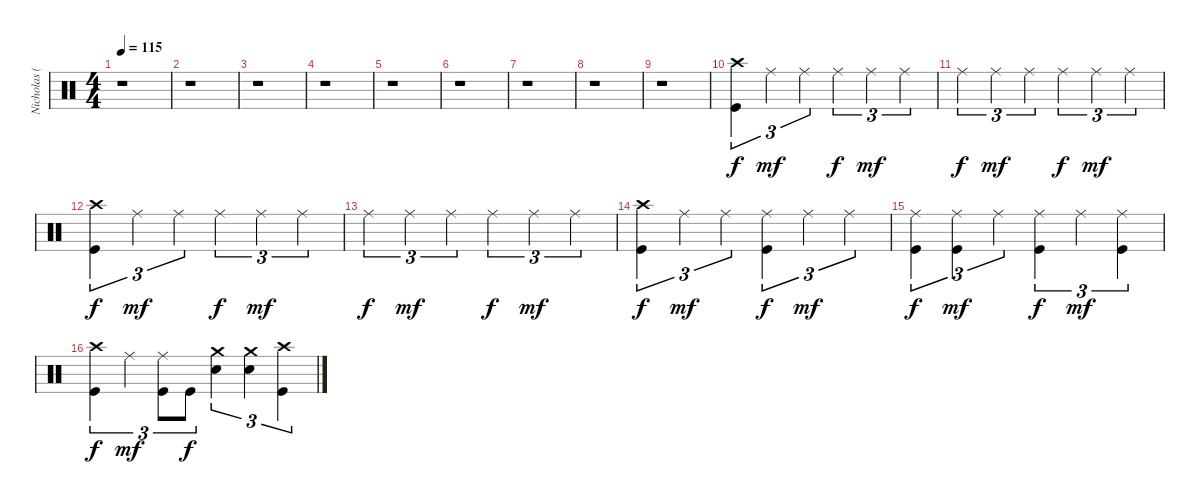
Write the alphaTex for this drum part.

\track ("Nicholas (Drums)" "Nicholas (") {instrument percussion}
\staff {score}
\articulation defaults
\ts (4 4)
\tempo 115
\clef neutral
\ks c
r.1{dy f} |
r.1 |
r.1 |
r.1 |
r.1 |
r.1 |
r.1 |
r.1 |
r.1 |
("Crash high (hit)" "Kick (hit)").4{tu (3 2)} "Ride (middle)".4{tu (3 2) dy mf} "Ride (middle)".4{tu (3 2)} "Ride (middle)".4{tu (3 2) dy f} "Ride (middle)".4{tu (3 2) dy mf} "Ride (middle)".4{tu (3 2)} |
"Ride (middle)".4{tu (3 2) dy f} "Ride (middle)".4{tu (3 2) dy mf} "Ride (middle)".4{tu (3 2)} "Ride (middle)".4{tu (3 2) dy f} "Ride (middle)".4{tu (3 2) dy mf} "Ride (middle)".4{tu (3 2)} |
("Crash high (hit)" "Kick (hit)").4{tu (3 2) dy f} "Ride (middle)".4{tu (3 2) dy mf} "Ride (middle)".4{tu (3 2)} "Ride (middle)".4{tu (3 2) dy f} "Ride (middle)".4{tu (3 2) dy mf} "Ride (middle)".4{tu (3 2)} |
"Ride (middle)".4{tu (3 2) dy f} "Ride (middle)".4{tu (3 2) dy mf} "Ride (middle)".4{tu (3 2)} "Ride (middle)".4{tu (3 2) dy f} "Ride (middle)".4{tu (3 2) dy mf} "Ride (middle)".4{tu (3 2)} |
("Crash high (hit)" "Kick (hit)").4{tu (3 2) dy f} "Ride (middle)".4{tu (3 2) dy mf} "Ride (middle)".4{tu (3 2)} ("Ride (middle)" "Kick (hit)").4{tu (3 2) dy f} "Ride (middle)".4{tu (3 2) dy mf} "Ride (middle)".4{tu (3 2)} |
("Ride (middle)" "Kick (hit)").4{tu (3 2) dy f} ("Ride (middle)" "Kick (hit)").4{tu (3 2) dy mf} "Ride (middle)".4{tu (3 2)} ("Ride (middle)" "Kick (hit)").4{tu (3 2) dy f} "Ride (middle)".4{tu (3 2) dy mf} ("Ride (middle)" "Kick (hit)").4{tu (3 2)} |
("Crash high (hit)" "Kick (hit)").4{tu (3 2) dy f} "Ride (middle)".4{tu (3 2) dy mf} ("Ride (middle)" "Kick (hit)").8{tu (3 2)} "Kick (hit)".8{tu (3 2) dy f} ("Crash medium (hit)" "Electric Snare (hit)").4{tu (3 2)} ("Crash medium (hit)" "Electric Snare (hit)").4{tu (3 2)} ("Crash high (hit)" "Kick (hit)").4{tu (3 2)}
